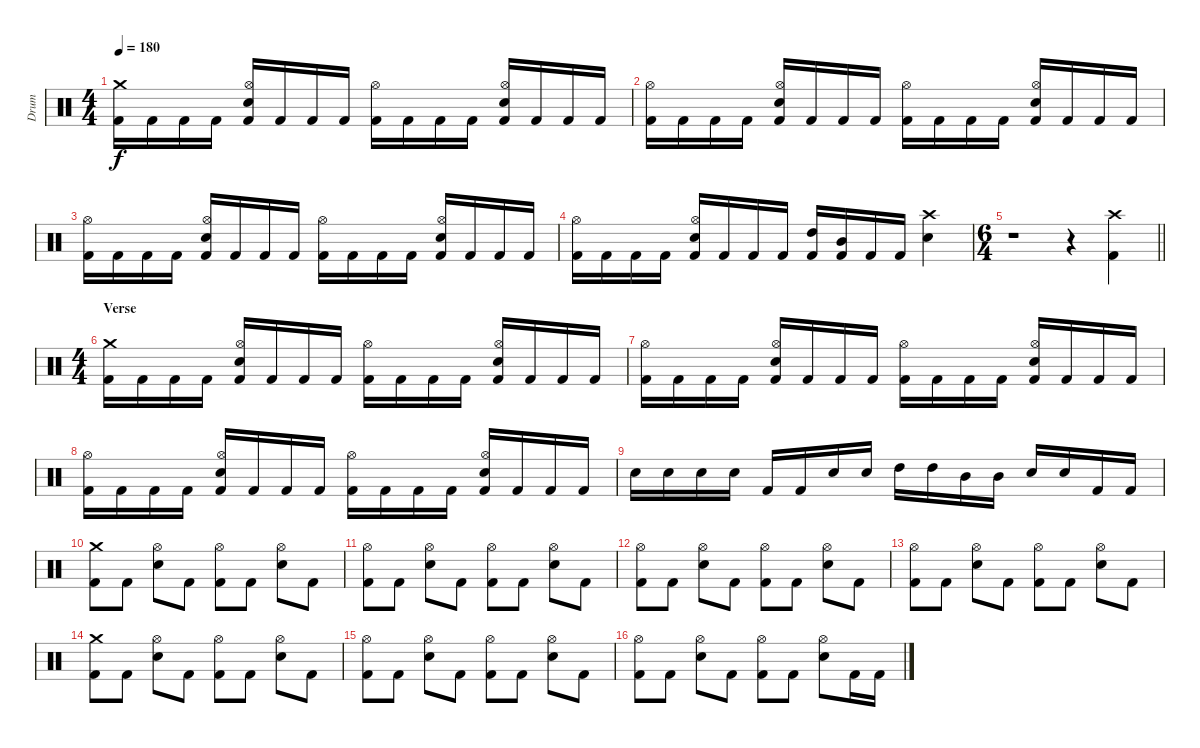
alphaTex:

\track ("Drum" "Drum") {instrument percussion}
\staff {score}
\articulation defaults
\ts (4 4)
\tempo 180
\clef neutral
\ks c
("Crash medium (hit)" "Kick (hit) 2").16{dy f} "Kick (hit) 2".16 "Kick (hit) 2".16 "Kick (hit) 2".16 ("Hi-Hat (open)" "Electric Snare (hit)" "Kick (hit) 2").16 "Kick (hit) 2".16 "Kick (hit) 2".16 "Kick (hit) 2".16 ("Hi-Hat (open)" "Kick (hit) 2").16 "Kick (hit) 2".16 "Kick (hit) 2".16 "Kick (hit) 2".16 ("Hi-Hat (open)" "Electric Snare (hit)" "Kick (hit) 2").16 "Kick (hit) 2".16 "Kick (hit) 2".16 "Kick (hit) 2".16 |
("Hi-Hat (open)" "Kick (hit) 2").16 "Kick (hit) 2".16 "Kick (hit) 2".16 "Kick (hit) 2".16 ("Hi-Hat (open)" "Electric Snare (hit)" "Kick (hit) 2").16 "Kick (hit) 2".16 "Kick (hit) 2".16 "Kick (hit) 2".16 ("Hi-Hat (open)" "Kick (hit) 2").16 "Kick (hit) 2".16 "Kick (hit) 2".16 "Kick (hit) 2".16 ("Hi-Hat (open)" "Electric Snare (hit)" "Kick (hit) 2").16 "Kick (hit) 2".16 "Kick (hit) 2".16 "Kick (hit) 2".16 |
("Hi-Hat (open)" "Kick (hit) 2").16 "Kick (hit) 2".16 "Kick (hit) 2".16 "Kick (hit) 2".16 ("Hi-Hat (open)" "Electric Snare (hit)" "Kick (hit) 2").16 "Kick (hit) 2".16 "Kick (hit) 2".16 "Kick (hit) 2".16 ("Hi-Hat (open)" "Kick (hit) 2").16 "Kick (hit) 2".16 "Kick (hit) 2".16 "Kick (hit) 2".16 ("Hi-Hat (open)" "Electric Snare (hit)" "Kick (hit) 2").16 "Kick (hit) 2".16 "Kick (hit) 2".16 "Kick (hit) 2".16 |
("Hi-Hat (open)" "Kick (hit) 2").16 "Kick (hit) 2".16 "Kick (hit) 2".16 "Kick (hit) 2".16 ("Hi-Hat (open)" "Electric Snare (hit)" "Kick (hit) 2").16 "Kick (hit) 2".16 "Kick (hit) 2".16 "Kick (hit) 2".16 ("High Tom (hit)" "Kick (hit) 2").16 ("Mid Tom (hit)" "Kick (hit) 2").16 "Kick (hit) 2".16 "Kick (hit) 2".16 ("Crash high (hit)" "Electric Snare (hit)").4 |
\ts (6 4)
\barLineRight lightlight
r.1 r.4 ("Crash high (hit)" "Kick (hit) 2").4 |
\ts (4 4)
\section ("" "Verse")
("Crash medium (hit)" "Kick (hit) 2").16 "Kick (hit) 2".16 "Kick (hit) 2".16 "Kick (hit) 2".16 ("Hi-Hat (open)" "Electric Snare (hit)" "Kick (hit) 2").16 "Kick (hit) 2".16 "Kick (hit) 2".16 "Kick (hit) 2".16 ("Hi-Hat (open)" "Kick (hit) 2").16 "Kick (hit) 2".16 "Kick (hit) 2".16 "Kick (hit) 2".16 ("Hi-Hat (open)" "Electric Snare (hit)" "Kick (hit) 2").16 "Kick (hit) 2".16 "Kick (hit) 2".16 "Kick (hit) 2".16 |
("Hi-Hat (open)" "Kick (hit) 2").16 "Kick (hit) 2".16 "Kick (hit) 2".16 "Kick (hit) 2".16 ("Hi-Hat (open)" "Electric Snare (hit)" "Kick (hit) 2").16 "Kick (hit) 2".16 "Kick (hit) 2".16 "Kick (hit) 2".16 ("Hi-Hat (open)" "Kick (hit) 2").16 "Kick (hit) 2".16 "Kick (hit) 2".16 "Kick (hit) 2".16 ("Hi-Hat (open)" "Electric Snare (hit)" "Kick (hit) 2").16 "Kick (hit) 2".16 "Kick (hit) 2".16 "Kick (hit) 2".16 |
("Hi-Hat (open)" "Kick (hit) 2").16 "Kick (hit) 2".16 "Kick (hit) 2".16 "Kick (hit) 2".16 ("Hi-Hat (open)" "Electric Snare (hit)" "Kick (hit) 2").16 "Kick (hit) 2".16 "Kick (hit) 2".16 "Kick (hit) 2".16 ("Hi-Hat (open)" "Kick (hit) 2").16 "Kick (hit) 2".16 "Kick (hit) 2".16 "Kick (hit) 2".16 ("Hi-Hat (open)" "Electric Snare (hit)" "Kick (hit) 2").16 "Kick (hit) 2".16 "Kick (hit) 2".16 "Kick (hit) 2".16 |
"Electric Snare (hit)".16 "Electric Snare (hit)".16 "Electric Snare (hit)".16 "Electric Snare (hit)".16 "Kick (hit) 2".16 "Kick (hit) 2".16 "Electric Snare (hit)".16 "Electric Snare (hit)".16 "High Tom (hit)".16 "High Tom (hit)".16 "Mid Tom (hit)".16 "Mid Tom (hit)".16 "Electric Snare (hit)".16 "Electric Snare (hit)".16 "Kick (hit) 2".16 "Kick (hit) 2".16 |
("Crash medium (hit)" "Kick (hit) 2").8 "Kick (hit) 2".8 ("Hi-Hat (open)" "Electric Snare (hit)").8 "Kick (hit) 2".8 ("Hi-Hat (open)" "Kick (hit) 2").8 "Kick (hit) 2".8 ("Hi-Hat (open)" "Electric Snare (hit)").8 "Kick (hit) 2".8 |
("Hi-Hat (open)" "Kick (hit) 2").8 "Kick (hit) 2".8 ("Hi-Hat (open)" "Electric Snare (hit)").8 "Kick (hit) 2".8 ("Hi-Hat (open)" "Kick (hit) 2").8 "Kick (hit) 2".8 ("Hi-Hat (open)" "Electric Snare (hit)").8 "Kick (hit) 2".8 |
("Hi-Hat (open)" "Kick (hit) 2").8 "Kick (hit) 2".8 ("Hi-Hat (open)" "Electric Snare (hit)").8 "Kick (hit) 2".8 ("Hi-Hat (open)" "Kick (hit) 2").8 "Kick (hit) 2".8 ("Hi-Hat (open)" "Electric Snare (hit)").8 "Kick (hit) 2".8 |
("Hi-Hat (open)" "Kick (hit) 2").8 "Kick (hit) 2".8 ("Hi-Hat (open)" "Electric Snare (hit)").8 "Kick (hit) 2".8 ("Hi-Hat (open)" "Kick (hit) 2").8 "Kick (hit) 2".8 ("Hi-Hat (open)" "Electric Snare (hit)").8 "Kick (hit) 2".8 |
("Crash medium (hit)" "Kick (hit) 2").8 "Kick (hit) 2".8 ("Hi-Hat (open)" "Electric Snare (hit)").8 "Kick (hit) 2".8 ("Hi-Hat (open)" "Kick (hit) 2").8 "Kick (hit) 2".8 ("Hi-Hat (open)" "Electric Snare (hit)").8 "Kick (hit) 2".8 |
("Hi-Hat (open)" "Kick (hit) 2").8 "Kick (hit) 2".8 ("Hi-Hat (open)" "Electric Snare (hit)").8 "Kick (hit) 2".8 ("Hi-Hat (open)" "Kick (hit) 2").8 "Kick (hit) 2".8 ("Hi-Hat (open)" "Electric Snare (hit)").8 "Kick (hit) 2".8 |
("Hi-Hat (open)" "Kick (hit) 2").8 "Kick (hit) 2".8 ("Hi-Hat (open)" "Electric Snare (hit)").8 "Kick (hit) 2".8 ("Hi-Hat (open)" "Kick (hit) 2").8 "Kick (hit) 2".8 ("Hi-Hat (open)" "Electric Snare (hit)").8 "Kick (hit) 2".16 "Kick (hit) 2".16
